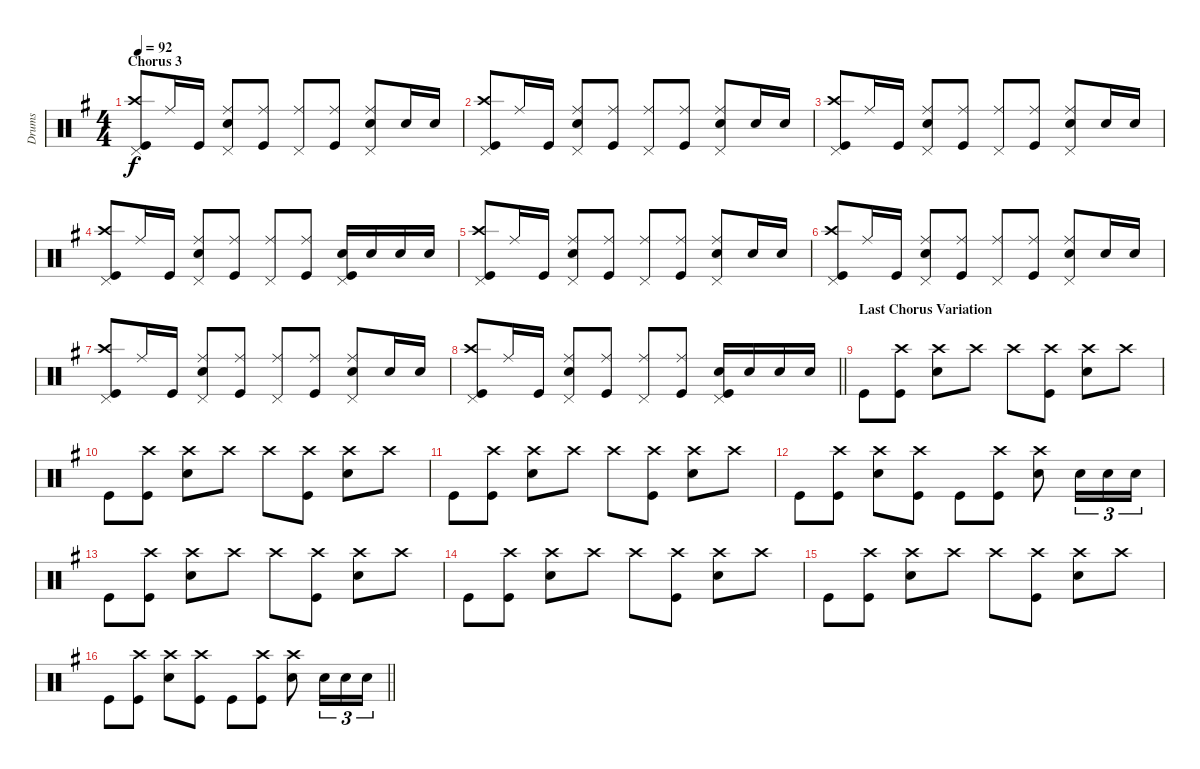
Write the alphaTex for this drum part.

\track ("Drums" "Drums") {instrument percussion}
\staff {score}
\articulation defaults
\ts (4 4)
\section ("" "Chorus 3")
\tempo 92
\clef neutral
\ks eminor
("Pedal Hi-Hat (hit)" "Crash high (hit)" "Kick (hit)").8{dy f} "Ride (middle)".16 "Kick (hit)".16 ("Pedal Hi-Hat (hit)" "Ride (middle)" "Snare (hit) 2").8 ("Ride (middle)" "Kick (hit)").8 ("Pedal Hi-Hat (hit)" "Ride (middle)").8 ("Ride (middle)" "Kick (hit)").8 ("Pedal Hi-Hat (hit)" "Ride (middle)" "Snare (hit) 2").8 "Snare (hit) 2".16 "Snare (hit) 2".16 |
("Pedal Hi-Hat (hit)" "Crash high (hit)" "Kick (hit)").8 "Ride (middle)".16 "Kick (hit)".16 ("Pedal Hi-Hat (hit)" "Ride (middle)" "Snare (hit) 2").8 ("Ride (middle)" "Kick (hit)").8 ("Pedal Hi-Hat (hit)" "Ride (middle)").8 ("Ride (middle)" "Kick (hit)").8 ("Pedal Hi-Hat (hit)" "Ride (middle)" "Snare (hit) 2").8 "Snare (hit) 2".16 "Snare (hit) 2".16 |
("Pedal Hi-Hat (hit)" "Crash high (hit)" "Kick (hit)").8 "Ride (middle)".16 "Kick (hit)".16 ("Pedal Hi-Hat (hit)" "Ride (middle)" "Snare (hit) 2").8 ("Ride (middle)" "Kick (hit)").8 ("Pedal Hi-Hat (hit)" "Ride (middle)").8 ("Ride (middle)" "Kick (hit)").8 ("Pedal Hi-Hat (hit)" "Ride (middle)" "Snare (hit) 2").8 "Snare (hit) 2".16 "Snare (hit) 2".16 |
("Pedal Hi-Hat (hit)" "Crash high (hit)" "Kick (hit)").8 "Ride (middle)".16 "Kick (hit)".16 ("Pedal Hi-Hat (hit)" "Ride (middle)" "Snare (hit) 2").8 ("Ride (middle)" "Kick (hit)").8 ("Pedal Hi-Hat (hit)" "Ride (middle)").8 ("Ride (middle)" "Kick (hit)").8 ("Pedal Hi-Hat (hit)" "Snare (hit) 2" "Kick (hit)").16 "Snare (hit) 2".16 "Snare (hit) 2".16 "Snare (hit) 2".16 |
("Pedal Hi-Hat (hit)" "Crash high (hit)" "Kick (hit)").8 "Ride (middle)".16 "Kick (hit)".16 ("Pedal Hi-Hat (hit)" "Ride (middle)" "Snare (hit) 2").8 ("Ride (middle)" "Kick (hit)").8 ("Pedal Hi-Hat (hit)" "Ride (middle)").8 ("Ride (middle)" "Kick (hit)").8 ("Pedal Hi-Hat (hit)" "Ride (middle)" "Snare (hit) 2").8 "Snare (hit) 2".16 "Snare (hit) 2".16 |
("Pedal Hi-Hat (hit)" "Crash high (hit)" "Kick (hit)").8 "Ride (middle)".16 "Kick (hit)".16 ("Pedal Hi-Hat (hit)" "Ride (middle)" "Snare (hit) 2").8 ("Ride (middle)" "Kick (hit)").8 ("Pedal Hi-Hat (hit)" "Ride (middle)").8 ("Ride (middle)" "Kick (hit)").8 ("Pedal Hi-Hat (hit)" "Ride (middle)" "Snare (hit) 2").8 "Snare (hit) 2".16 "Snare (hit) 2".16 |
("Pedal Hi-Hat (hit)" "Crash high (hit)" "Kick (hit)").8 "Ride (middle)".16 "Kick (hit)".16 ("Pedal Hi-Hat (hit)" "Ride (middle)" "Snare (hit) 2").8 ("Ride (middle)" "Kick (hit)").8 ("Pedal Hi-Hat (hit)" "Ride (middle)").8 ("Ride (middle)" "Kick (hit)").8 ("Pedal Hi-Hat (hit)" "Ride (middle)" "Snare (hit) 2").8 "Snare (hit) 2".16 "Snare (hit) 2".16 |
\barLineRight lightlight
("Pedal Hi-Hat (hit)" "Crash high (hit)" "Kick (hit)").8 "Ride (middle)".16 "Kick (hit)".16 ("Pedal Hi-Hat (hit)" "Ride (middle)" "Snare (hit) 2").8 ("Ride (middle)" "Kick (hit)").8 ("Pedal Hi-Hat (hit)" "Ride (middle)").8 ("Ride (middle)" "Kick (hit)").8 ("Pedal Hi-Hat (hit)" "Snare (hit) 2" "Kick (hit)").16 "Snare (hit) 2".16 "Snare (hit) 2".16 "Snare (hit) 2".16 |
\section ("" "Last Chorus Variation")
"Kick (hit)".8 ("Crash high (hit)" "Kick (hit)").8 ("Crash high (hit)" "Snare (hit) 2").8 "Crash high (hit)".8 "Crash high (hit)".8 ("Crash high (hit)" "Kick (hit)").8 ("Crash high (hit)" "Snare (hit) 2").8 "Crash high (hit)".8 |
"Kick (hit)".8 ("Crash high (hit)" "Kick (hit)").8 ("Crash high (hit)" "Snare (hit) 2").8 "Crash high (hit)".8 "Crash high (hit)".8 ("Crash high (hit)" "Kick (hit)").8 ("Crash high (hit)" "Snare (hit) 2").8 "Crash high (hit)".8 |
"Kick (hit)".8 ("Crash high (hit)" "Kick (hit)").8 ("Crash high (hit)" "Snare (hit) 2").8 "Crash high (hit)".8 "Crash high (hit)".8 ("Crash high (hit)" "Kick (hit)").8 ("Crash high (hit)" "Snare (hit) 2").8 "Crash high (hit)".8 |
"Kick (hit)".8 ("Crash high (hit)" "Kick (hit)").8 ("Crash high (hit)" "Snare (hit) 2").8 ("Crash high (hit)" "Kick (hit)").8 "Kick (hit)".8 ("Crash high (hit)" "Kick (hit)").8 ("Crash high (hit)" "Snare (hit) 2").8 "Snare (hit) 2".16{tu (3 2)} "Snare (hit) 2".16{tu (3 2)} "Snare (hit) 2".16{tu (3 2)} |
"Kick (hit)".8 ("Crash high (hit)" "Kick (hit)").8 ("Crash high (hit)" "Snare (hit) 2").8 "Crash high (hit)".8 "Crash high (hit)".8 ("Crash high (hit)" "Kick (hit)").8 ("Crash high (hit)" "Snare (hit) 2").8 "Crash high (hit)".8 |
"Kick (hit)".8 ("Crash high (hit)" "Kick (hit)").8 ("Crash high (hit)" "Snare (hit) 2").8 "Crash high (hit)".8 "Crash high (hit)".8 ("Crash high (hit)" "Kick (hit)").8 ("Crash high (hit)" "Snare (hit) 2").8 "Crash high (hit)".8 |
"Kick (hit)".8 ("Crash high (hit)" "Kick (hit)").8 ("Crash high (hit)" "Snare (hit) 2").8 "Crash high (hit)".8 "Crash high (hit)".8 ("Crash high (hit)" "Kick (hit)").8 ("Crash high (hit)" "Snare (hit) 2").8 "Crash high (hit)".8 |
\barLineRight lightlight "Kick (hit)".8
("Crash high (hit)" "Kick (hit)").8 ("Crash high (hit)" "Snare (hit) 2").8 ("Crash high (hit)" "Kick (hit)").8 "Kick (hit)".8 ("Crash high (hit)" "Kick (hit)").8 ("Crash high (hit)" "Snare (hit) 2").8 "Snare (hit) 2".16{tu (3 2)} "Snare (hit) 2".16{tu (3 2)} "Snare (hit) 2".16{tu (3 2)}
